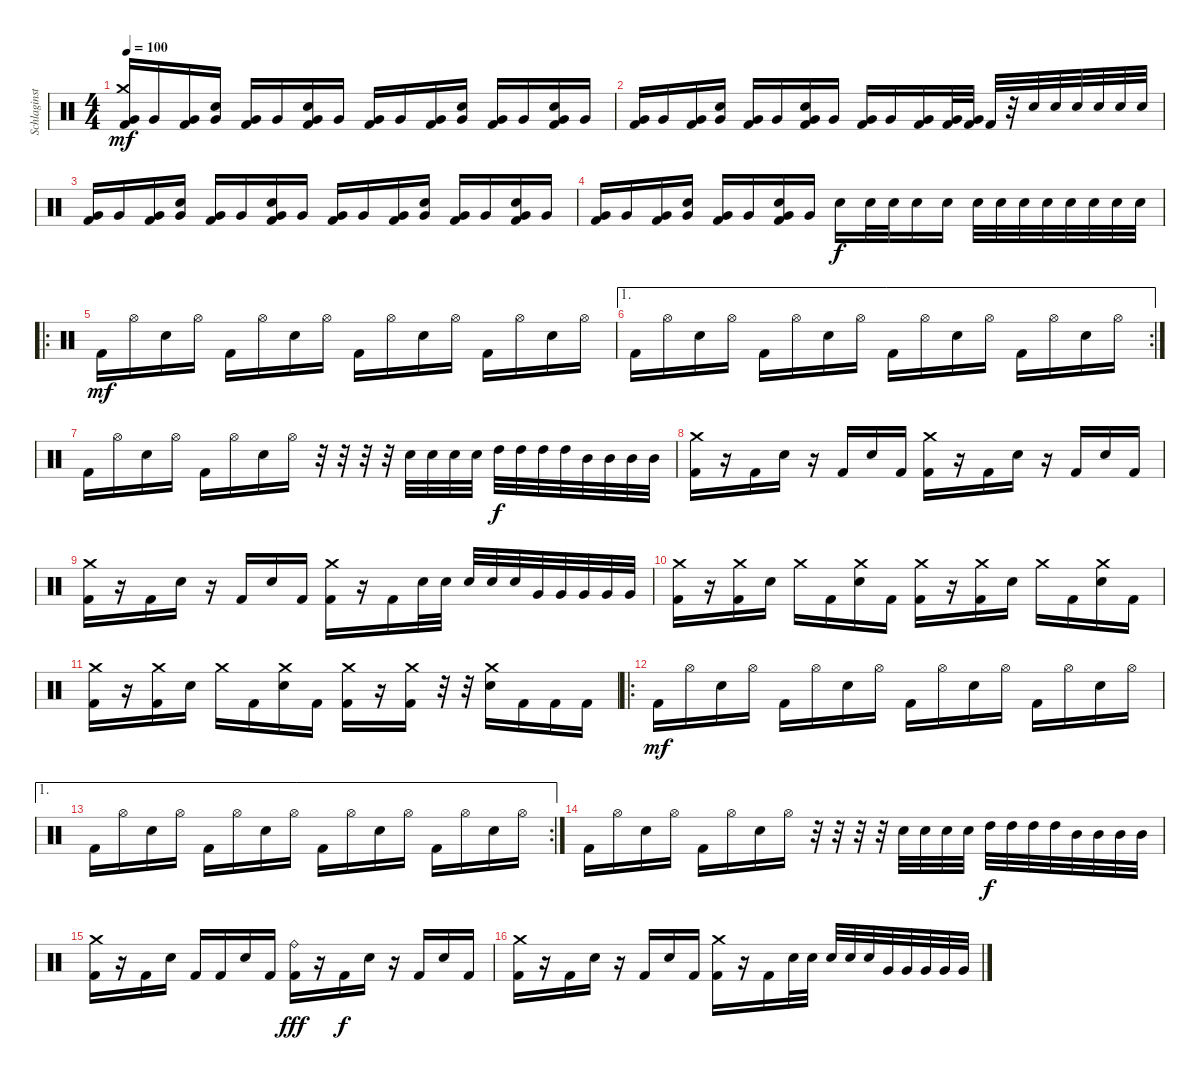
\track ("Schlaginstrumente - Auswahl" "Schlaginst") {instrument percussion}
\staff {score}
\articulation defaults
\ts (4 4)
\tempo 100
\clef neutral
\ks c
("Very Low Tom (hit)" "Crash medium (hit)" "Kick (hit) 2").16{dy mf} "Very Low Tom (hit)".16 ("Very Low Tom (hit)" "Kick (hit) 2").16 ("Very Low Tom (hit)" "Electric Snare (hit)").16 ("Very Low Tom (hit)" "Kick (hit) 2").16 "Very Low Tom (hit)".16 ("Very Low Tom (hit)" "Electric Snare (hit)" "Kick (hit) 2").16 "Very Low Tom (hit)".16 ("Very Low Tom (hit)" "Kick (hit) 2").16 "Very Low Tom (hit)".16 ("Very Low Tom (hit)" "Kick (hit) 2").16 ("Very Low Tom (hit)" "Electric Snare (hit)").16 ("Very Low Tom (hit)" "Kick (hit) 2").16 "Very Low Tom (hit)".16 ("Very Low Tom (hit)" "Electric Snare (hit)" "Kick (hit) 2").16 "Very Low Tom (hit)".16 |
("Very Low Tom (hit)" "Kick (hit) 2").16 "Very Low Tom (hit)".16 ("Very Low Tom (hit)" "Kick (hit) 2").16 ("Very Low Tom (hit)" "Electric Snare (hit)").16 ("Very Low Tom (hit)" "Kick (hit) 2").16 "Very Low Tom (hit)".16 ("Very Low Tom (hit)" "Electric Snare (hit)" "Kick (hit) 2").16 "Very Low Tom (hit)".16 ("Very Low Tom (hit)" "Kick (hit) 2").16 "Very Low Tom (hit)".16 ("Very Low Tom (hit)" "Kick (hit) 2").16 ("Very Low Tom (hit)" "Kick (hit) 2").32 ("Very Low Tom (hit)" "Kick (hit) 2").32 "Kick (hit) 2".32 r.32 "Electric Snare (hit)".32 "Electric Snare (hit)".32 "Electric Snare (hit)".32 "Electric Snare (hit)".32 "Electric Snare (hit)".32 "Electric Snare (hit)".32 |
("Very Low Tom (hit)" "Kick (hit) 2").16 "Very Low Tom (hit)".16 ("Very Low Tom (hit)" "Kick (hit) 2").16 ("Very Low Tom (hit)" "Electric Snare (hit)").16 ("Very Low Tom (hit)" "Kick (hit) 2").16 "Very Low Tom (hit)".16 ("Very Low Tom (hit)" "Electric Snare (hit)" "Kick (hit) 2").16 "Very Low Tom (hit)".16 ("Very Low Tom (hit)" "Kick (hit) 2").16 "Very Low Tom (hit)".16 ("Very Low Tom (hit)" "Kick (hit) 2").16 ("Very Low Tom (hit)" "Electric Snare (hit)").16 ("Very Low Tom (hit)" "Kick (hit) 2").16 "Very Low Tom (hit)".16 ("Very Low Tom (hit)" "Electric Snare (hit)" "Kick (hit) 2").16 "Very Low Tom (hit)".16 |
("Very Low Tom (hit)" "Kick (hit) 2").16 "Very Low Tom (hit)".16 ("Very Low Tom (hit)" "Kick (hit) 2").16 ("Very Low Tom (hit)" "Electric Snare (hit)").16 ("Very Low Tom (hit)" "Kick (hit) 2").16 "Very Low Tom (hit)".16 ("Very Low Tom (hit)" "Electric Snare (hit)" "Kick (hit) 2").16 "Very Low Tom (hit)".16 "Electric Snare (hit)".16{dy f} "Electric Snare (hit)".32 "Electric Snare (hit)".32 "Electric Snare (hit)".16 "Electric Snare (hit)".16 "Electric Snare (hit)".32 "Electric Snare (hit)".32 "Electric Snare (hit)".32 "Electric Snare (hit)".32 "Electric Snare (hit)".32 "Electric Snare (hit)".32 "Electric Snare (hit)".32 "Electric Snare (hit)".32 |
\ro "Kick (hit) 2".16{dy mf} "Hi-Hat (open)".16 "Electric Snare (hit)".16 "Hi-Hat (open)".16 "Kick (hit) 2".16 "Hi-Hat (open)".16 "Electric Snare (hit)".16 "Hi-Hat (open)".16 "Kick (hit) 2".16 "Hi-Hat (open)".16 "Electric Snare (hit)".16 "Hi-Hat (open)".16 "Kick (hit) 2".16 "Hi-Hat (open)".16 "Electric Snare (hit)".16 "Hi-Hat (open)".16
|
\ae 1
\rc 2 "Kick (hit) 2".16 "Hi-Hat (open)".16 "Electric Snare (hit)".16 "Hi-Hat (open)".16 "Kick (hit) 2".16 "Hi-Hat (open)".16 "Electric Snare (hit)".16 "Hi-Hat (open)".16 "Kick (hit) 2".16 "Hi-Hat (open)".16 "Electric Snare (hit)".16 "Hi-Hat (open)".16 "Kick (hit) 2".16 "Hi-Hat (open)".16 "Electric Snare (hit)".16 "Hi-Hat (open)".16
|
"Kick (hit) 2".16 "Hi-Hat (open)".16 "Electric Snare (hit)".16 "Hi-Hat (open)".16 "Kick (hit) 2".16 "Hi-Hat (open)".16 "Electric Snare (hit)".16 "Hi-Hat (open)".16 r.32 r.32 r.32 r.32 "Electric Snare (hit)".32 "Electric Snare (hit)".32 "Electric Snare (hit)".32 "Electric Snare (hit)".32 "High Tom (hit)".32{dy f} "High Tom (hit)".32 "High Tom (hit)".32 "High Tom (hit)".32 "Mid Tom (hit)".32 "Mid Tom (hit)".32 "Mid Tom (hit)".32 "Mid Tom (hit)".32 |
("Crash medium (hit)" "Kick (hit) 2").16 r.16 "Kick (hit) 2".16 "Electric Snare (hit)".16 r.16 "Kick (hit) 2".16 "Electric Snare (hit)".16 "Kick (hit) 2".16 ("Crash medium (hit)" "Kick (hit) 2").16 r.16 "Kick (hit) 2".16 "Electric Snare (hit)".16 r.16 "Kick (hit) 2".16 "Electric Snare (hit)".16 "Kick (hit) 2".16 |
("Crash medium (hit)" "Kick (hit) 2").16 r.16 "Kick (hit) 2".16 "Electric Snare (hit)".16 r.16 "Kick (hit) 2".16 "Electric Snare (hit)".16 "Kick (hit) 2".16 ("Crash medium (hit)" "Kick (hit) 2").16 r.16 "Kick (hit) 2".16 "Electric Snare (hit)".32 "Electric Snare (hit)".32 "Electric Snare (hit)".32 "Electric Snare (hit)".32 "Electric Snare (hit)".32 "Very Low Tom (hit)".32 "Very Low Tom (hit)".32 "Very Low Tom (hit)".32 "Very Low Tom (hit)".32 "Very Low Tom (hit)".32 |
("Crash medium (hit)" "Kick (hit) 2").16 r.16 ("Crash medium (hit)" "Kick (hit) 2").16 "Electric Snare (hit)".16 "Crash medium (hit)".16 "Kick (hit) 2".16 ("Crash medium (hit)" "Electric Snare (hit)").16 "Kick (hit) 2".16 ("Crash medium (hit)" "Kick (hit) 2").16 r.16 ("Crash medium (hit)" "Kick (hit) 2").16 "Electric Snare (hit)".16 "Crash medium (hit)".16 "Kick (hit) 2".16 ("Crash medium (hit)" "Electric Snare (hit)").16 "Kick (hit) 2".16 |
("Crash medium (hit)" "Kick (hit) 2").16 r.16 ("Crash medium (hit)" "Kick (hit) 2").16 "Electric Snare (hit)".16 "Crash medium (hit)".16 "Kick (hit) 2".16 ("Crash medium (hit)" "Electric Snare (hit)").16 "Kick (hit) 2".16 ("Crash medium (hit)" "Kick (hit) 2").16 r.16 ("Crash medium (hit)" "Kick (hit) 2").16 r.32 r.32 ("Crash medium (hit)" "Electric Snare (hit)").16 "Kick (hit) 2".16 "Kick (hit) 2".16 "Kick (hit) 2".16 |
\ro "Kick (hit) 2".16{dy mf} "Hi-Hat (open)".16 "Electric Snare (hit)".16 "Hi-Hat (open)".16 "Kick (hit) 2".16 "Hi-Hat (open)".16 "Electric Snare (hit)".16 "Hi-Hat (open)".16 "Kick (hit) 2".16 "Hi-Hat (open)".16 "Electric Snare (hit)".16 "Hi-Hat (open)".16 "Kick (hit) 2".16 "Hi-Hat (open)".16 "Electric Snare (hit)".16 "Hi-Hat (open)".16
|
\ae 1
\rc 2 "Kick (hit) 2".16 "Hi-Hat (open)".16 "Electric Snare (hit)".16 "Hi-Hat (open)".16 "Kick (hit) 2".16 "Hi-Hat (open)".16 "Electric Snare (hit)".16 "Hi-Hat (open)".16 "Kick (hit) 2".16 "Hi-Hat (open)".16 "Electric Snare (hit)".16 "Hi-Hat (open)".16 "Kick (hit) 2".16 "Hi-Hat (open)".16 "Electric Snare (hit)".16 "Hi-Hat (open)".16
|
"Kick (hit) 2".16 "Hi-Hat (open)".16 "Electric Snare (hit)".16 "Hi-Hat (open)".16 "Kick (hit) 2".16 "Hi-Hat (open)".16 "Electric Snare (hit)".16 "Hi-Hat (open)".16 r.32 r.32 r.32 r.32 "Electric Snare (hit)".32 "Electric Snare (hit)".32 "Electric Snare (hit)".32 "Electric Snare (hit)".32 "High Tom (hit)".32{dy f} "High Tom (hit)".32 "High Tom (hit)".32 "High Tom (hit)".32 "Mid Tom (hit)".32 "Mid Tom (hit)".32 "Mid Tom (hit)".32 "Mid Tom (hit)".32 |
("Crash medium (hit)" "Kick (hit) 2").16 r.16 "Kick (hit) 2".16 "Electric Snare (hit)".16 "Kick (hit) 2".16 "Kick (hit) 2".16 "Electric Snare (hit)".16 "Kick (hit) 2".16 ("Ride (bell)" "Kick (hit) 2").16{dy fff} r.16 "Kick (hit) 2".16{dy f} "Electric Snare (hit)".16 r.16 "Kick (hit) 2".16 "Electric Snare (hit)".16 "Kick (hit) 2".16 |
("Crash medium (hit)" "Kick (hit) 2").16 r.16 "Kick (hit) 2".16 "Electric Snare (hit)".16 r.16 "Kick (hit) 2".16 "Electric Snare (hit)".16 "Kick (hit) 2".16 ("Crash medium (hit)" "Kick (hit) 2").16 r.16 "Kick (hit) 2".16 "Electric Snare (hit)".32 "Electric Snare (hit)".32 "Electric Snare (hit)".32 "Electric Snare (hit)".32 "Electric Snare (hit)".32 "Very Low Tom (hit)".32 "Very Low Tom (hit)".32 "Very Low Tom (hit)".32 "Very Low Tom (hit)".32 "Very Low Tom (hit)".32
